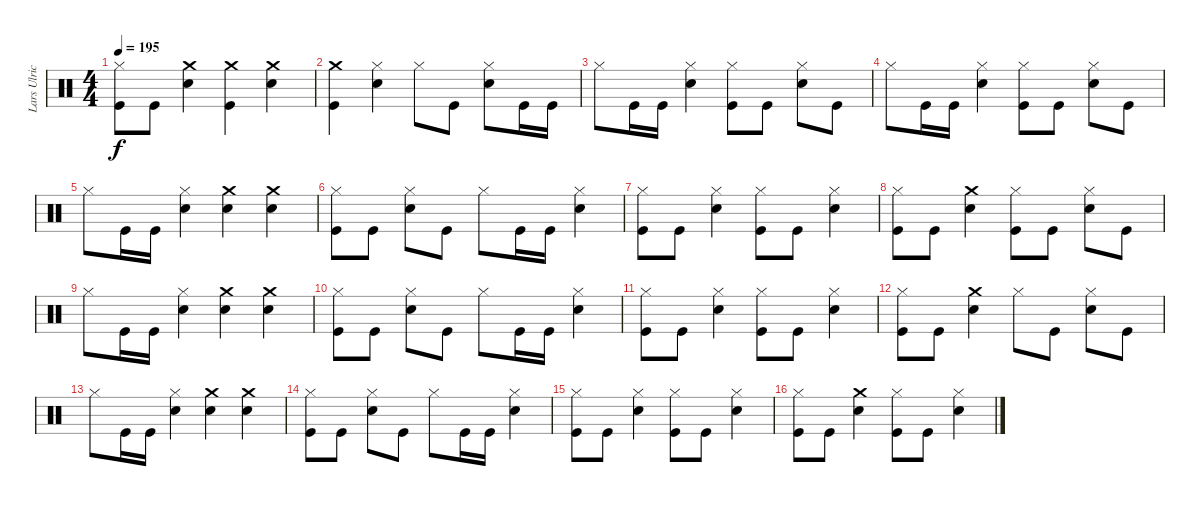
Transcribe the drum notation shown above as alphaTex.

\track ("Lars Ulrich (Drums)" "Lars Ulric") {instrument percussion}
\staff {score}
\articulation defaults
\ts (4 4)
\tempo 195
\clef neutral
\ks c
("Kick (hit)" "Hi-Hat (closed)").8{dy f} "Kick (hit)".8 ("Crash medium (hit)" "Snare (hit) 2").4 ("Kick (hit)" "Crash medium (hit)").4 ("Crash medium (hit)" "Snare (hit) 2").4 |
("Kick (hit)" "Crash medium (hit)").4 ("Hi-Hat (closed)" "Snare (hit) 2").4 "Hi-Hat (closed)".8 "Kick (hit)".8 ("Snare (hit) 2" "Hi-Hat (closed)").8 "Kick (hit)".16 "Kick (hit)".16 |
"Hi-Hat (closed)".8 "Kick (hit)".16 "Kick (hit)".16 ("Snare (hit) 2" "Hi-Hat (closed)").4 ("Hi-Hat (closed)" "Kick (hit)").8 "Kick (hit)".8 ("Snare (hit) 2" "Hi-Hat (closed)").8 "Kick (hit)".8 |
"Hi-Hat (closed)".8 "Kick (hit)".16 "Kick (hit)".16 ("Snare (hit) 2" "Hi-Hat (closed)").4 ("Hi-Hat (closed)" "Kick (hit)").8 "Kick (hit)".8 ("Snare (hit) 2" "Hi-Hat (closed)").8 "Kick (hit)".8 |
"Hi-Hat (closed)".8 "Kick (hit)".16 "Kick (hit)".16 ("Snare (hit) 2" "Hi-Hat (closed)").4 ("Crash medium (hit)" "Snare (hit) 2").4 ("Crash medium (hit)" "Snare (hit) 2").4 |
("Kick (hit)" "Hi-Hat (closed)").8 "Kick (hit)".8 ("Snare (hit) 2" "Hi-Hat (closed)").8 "Kick (hit)".8 "Hi-Hat (closed)".8 "Kick (hit)".16 "Kick (hit)".16 ("Snare (hit) 2" "Hi-Hat (closed)").4 |
("Kick (hit)" "Hi-Hat (closed)").8 "Kick (hit)".8 ("Snare (hit) 2" "Hi-Hat (closed)").4 ("Kick (hit)" "Hi-Hat (closed)").8 "Kick (hit)".8 ("Snare (hit) 2" "Hi-Hat (closed)").4 |
("Kick (hit)" "Hi-Hat (closed)").8 "Kick (hit)".8 ("Crash medium (hit)" "Snare (hit) 2").4 ("Kick (hit)" "Hi-Hat (closed)").8 "Kick (hit)".8 ("Snare (hit) 2" "Hi-Hat (closed)").8 "Kick (hit)".8 |
"Hi-Hat (closed)".8 "Kick (hit)".16 "Kick (hit)".16 ("Snare (hit) 2" "Hi-Hat (closed)").4 ("Crash medium (hit)" "Snare (hit) 2").4 ("Crash medium (hit)" "Snare (hit) 2").4 |
("Kick (hit)" "Hi-Hat (closed)").8 "Kick (hit)".8 ("Snare (hit) 2" "Hi-Hat (closed)").8 "Kick (hit)".8 "Hi-Hat (closed)".8 "Kick (hit)".16 "Kick (hit)".16 ("Snare (hit) 2" "Hi-Hat (closed)").4 |
("Kick (hit)" "Hi-Hat (closed)").8 "Kick (hit)".8 ("Snare (hit) 2" "Hi-Hat (closed)").4 ("Kick (hit)" "Hi-Hat (closed)").8 "Kick (hit)".8 ("Snare (hit) 2" "Hi-Hat (closed)").4 |
("Kick (hit)" "Hi-Hat (closed)").8 "Kick (hit)".8 ("Crash medium (hit)" "Snare (hit) 2").4 "Hi-Hat (closed)".8 "Kick (hit)".8 ("Snare (hit) 2" "Hi-Hat (closed)").8 "Kick (hit)".8 |
"Hi-Hat (closed)".8 "Kick (hit)".16 "Kick (hit)".16 ("Snare (hit) 2" "Hi-Hat (closed)").4 ("Crash medium (hit)" "Snare (hit) 2").4 ("Crash medium (hit)" "Snare (hit) 2").4 |
("Kick (hit)" "Hi-Hat (closed)").8 "Kick (hit)".8 ("Snare (hit) 2" "Hi-Hat (closed)").8 "Kick (hit)".8 "Hi-Hat (closed)".8 "Kick (hit)".16 "Kick (hit)".16 ("Snare (hit) 2" "Hi-Hat (closed)").4 |
("Kick (hit)" "Hi-Hat (closed)").8 "Kick (hit)".8 ("Snare (hit) 2" "Hi-Hat (closed)").4 ("Kick (hit)" "Hi-Hat (closed)").8 "Kick (hit)".8 ("Snare (hit) 2" "Hi-Hat (closed)").4 |
("Kick (hit)" "Hi-Hat (closed)").8 "Kick (hit)".8 ("Crash medium (hit)" "Snare (hit) 2").4 ("Kick (hit)" "Hi-Hat (closed)").8 "Kick (hit)".8 ("Snare (hit) 2" "Hi-Hat (closed)").4
